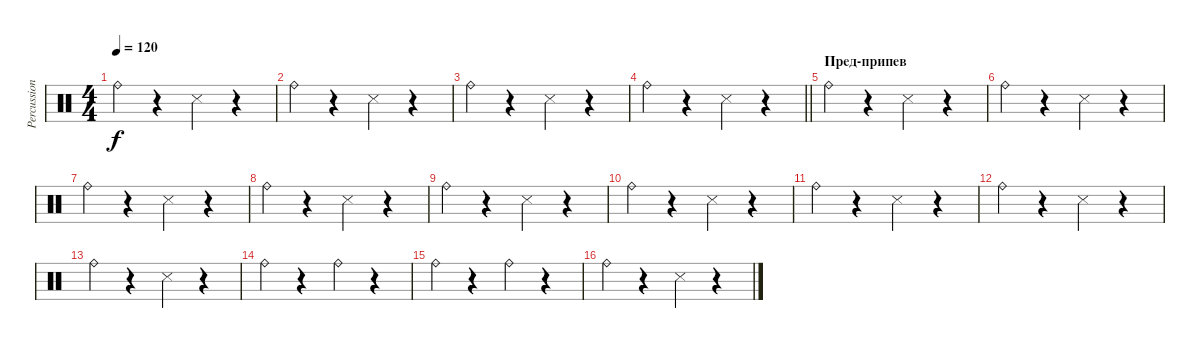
\track ("Percussion" "Percussion") {instrument percussion}
\staff {score}
\articulation defaults
\ts (4 4)
\tempo 120
\clef neutral
\ks c "Ride (bell)".4{dy f}
r.4 "Snare (side stick) 3".4 r.4 |
"Ride (bell)".4 r.4 "Snare (side stick) 3".4 r.4 |
"Ride (bell)".4 r.4 "Snare (side stick) 3".4 r.4 |
\barLineRight lightlight "Ride (bell)".4
r.4 "Snare (side stick) 3".4 r.4 |
\section ("" "Пред-припев")
"Ride (bell)".4 r.4 "Snare (side stick) 3".4 r.4 |
"Ride (bell)".4 r.4 "Snare (side stick) 3".4 r.4 |
"Ride (bell)".4 r.4 "Snare (side stick) 3".4 r.4 |
"Ride (bell)".4 r.4 "Snare (side stick) 3".4 r.4 |
"Ride (bell)".4 r.4 "Snare (side stick) 3".4 r.4 |
"Ride (bell)".4 r.4 "Snare (side stick) 3".4 r.4 |
"Ride (bell)".4 r.4 "Snare (side stick) 3".4 r.4 |
"Ride (bell)".4 r.4 "Snare (side stick) 3".4 r.4 |
"Ride (bell)".4 r.4 "Snare (side stick) 3".4 r.4 |
"Ride (bell)".4 r.4 "Ride (bell)".4 r.4 |
"Ride (bell)".4 r.4 "Ride (bell)".4 r.4 |
"Ride (bell)".4 r.4 "Snare (side stick) 3".4 r.4
